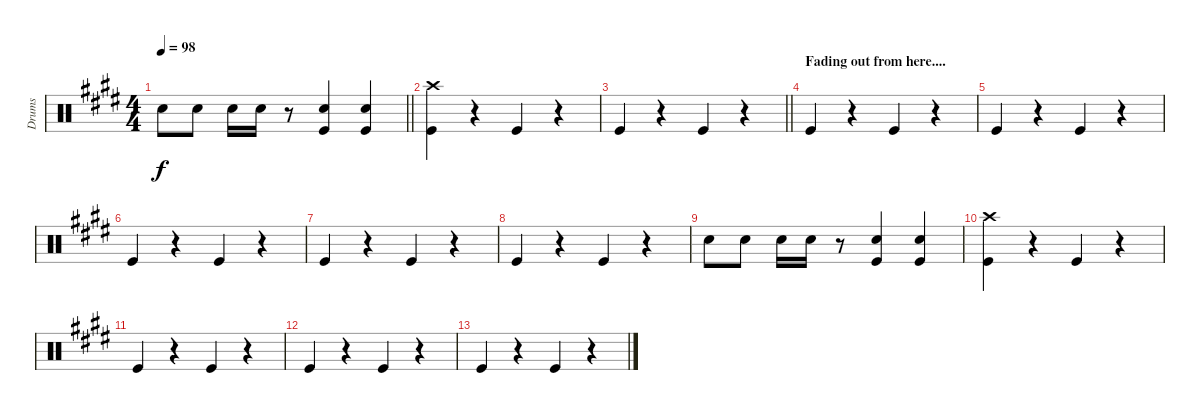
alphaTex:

\track ("Drums" "Drums") {instrument percussion}
\staff {score}
\articulation defaults
\ts (4 4)
\tempo 98
\clef neutral
\barLineRight lightlight
\ks c#minor "Snare (hit) 2".8{dy f} "Snare (hit) 2".8 "Snare (hit) 2".16 "Snare (hit) 2".16
r.8 ("Kick (hit)" "Snare (hit) 2").4 ("Kick (hit)" "Snare (hit) 2").4 |
("Kick (hit)" "Crash high (hit)").4 r.4 "Kick (hit)".4 r.4 |
\barLineRight lightlight "Kick (hit)".4
r.4 "Kick (hit)".4 r.4 |
\section ("" "Fading out from here....")
"Kick (hit)".4 r.4 "Kick (hit)".4 r.4 |
"Kick (hit)".4 r.4 "Kick (hit)".4 r.4 |
"Kick (hit)".4 r.4 "Kick (hit)".4 r.4 |
"Kick (hit)".4 r.4 "Kick (hit)".4 r.4 |
"Kick (hit)".4 r.4 "Kick (hit)".4 r.4 |
"Snare (hit) 2".8 "Snare (hit) 2".8 "Snare (hit) 2".16 "Snare (hit) 2".16 r.8 ("Kick (hit)" "Snare (hit) 2").4 ("Kick (hit)" "Snare (hit) 2").4 |
("Kick (hit)" "Crash high (hit)").4 r.4 "Kick (hit)".4 r.4 |
"Kick (hit)".4 r.4 "Kick (hit)".4 r.4 |
"Kick (hit)".4 r.4 "Kick (hit)".4 r.4 |
"Kick (hit)".4 r.4 "Kick (hit)".4 r.4
